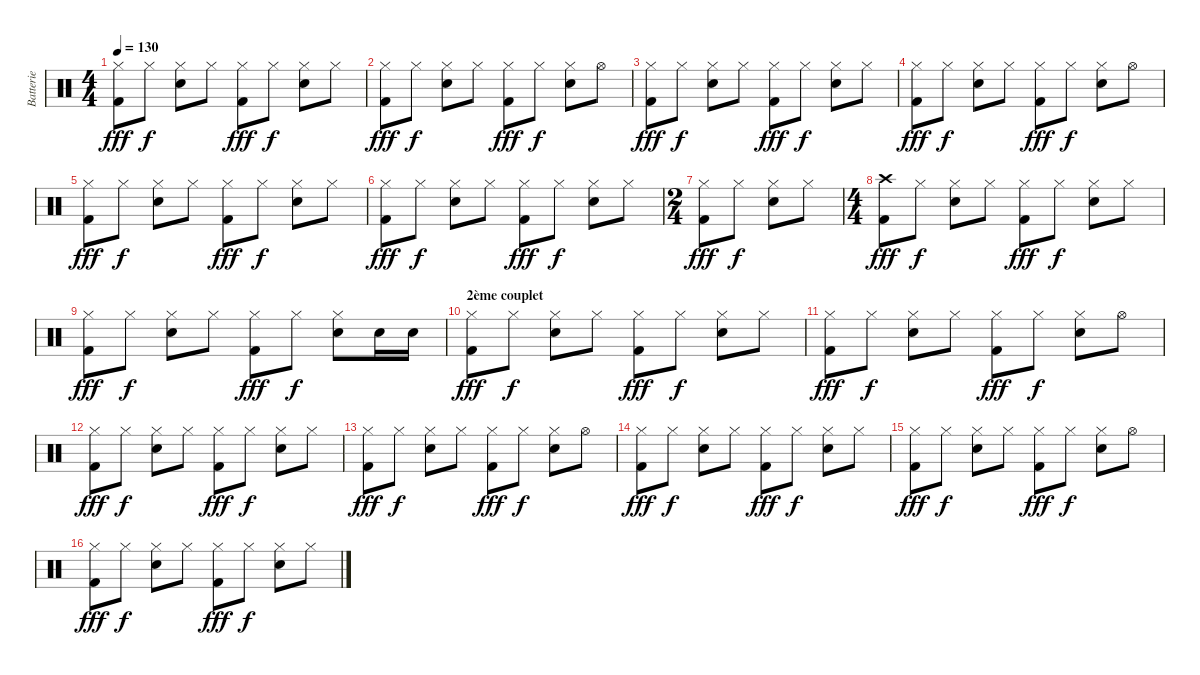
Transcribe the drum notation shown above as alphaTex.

\track ("Batterie" "Batterie") {instrument percussion}
\staff {score}
\articulation defaults
\ts (4 4)
\tempo 130
\clef neutral
\ks c
("Hi-Hat (closed)" "Kick (hit) 2").8{dy fff} "Hi-Hat (closed)".8{dy f} ("Hi-Hat (closed)" "Snare (hit) 2").8 "Hi-Hat (closed)".8 ("Hi-Hat (closed)" "Kick (hit) 2").8{dy fff} "Hi-Hat (closed)".8{dy f} ("Hi-Hat (closed)" "Snare (hit) 2").8 "Hi-Hat (closed)".8 |
("Hi-Hat (closed)" "Kick (hit) 2").8{dy fff} "Hi-Hat (closed)".8{dy f} ("Hi-Hat (closed)" "Snare (hit) 2").8 "Hi-Hat (closed)".8 ("Hi-Hat (closed)" "Kick (hit) 2").8{dy fff} "Hi-Hat (closed)".8{dy f} ("Hi-Hat (closed)" "Snare (hit) 2").8 "Hi-Hat (open)".8 |
("Hi-Hat (closed)" "Kick (hit) 2").8{dy fff} "Hi-Hat (closed)".8{dy f} ("Hi-Hat (closed)" "Snare (hit) 2").8 "Hi-Hat (closed)".8 ("Hi-Hat (closed)" "Kick (hit) 2").8{dy fff} "Hi-Hat (closed)".8{dy f} ("Hi-Hat (closed)" "Snare (hit) 2").8 "Hi-Hat (closed)".8 |
("Hi-Hat (closed)" "Kick (hit) 2").8{dy fff} "Hi-Hat (closed)".8{dy f} ("Hi-Hat (closed)" "Snare (hit) 2").8 "Hi-Hat (closed)".8 ("Hi-Hat (closed)" "Kick (hit) 2").8{dy fff} "Hi-Hat (closed)".8{dy f} ("Hi-Hat (closed)" "Snare (hit) 2").8 "Hi-Hat (open)".8 |
("Hi-Hat (closed)" "Kick (hit) 2").8{dy fff} "Hi-Hat (closed)".8{dy f} ("Hi-Hat (closed)" "Snare (hit) 2").8 "Hi-Hat (closed)".8 ("Hi-Hat (closed)" "Kick (hit) 2").8{dy fff} "Hi-Hat (closed)".8{dy f} ("Hi-Hat (closed)" "Snare (hit) 2").8 "Hi-Hat (closed)".8 |
("Hi-Hat (closed)" "Kick (hit) 2").8{dy fff} "Hi-Hat (closed)".8{dy f} ("Hi-Hat (closed)" "Snare (hit) 2").8 "Hi-Hat (closed)".8 ("Hi-Hat (closed)" "Kick (hit) 2").8{dy fff} "Hi-Hat (closed)".8{dy f} ("Hi-Hat (closed)" "Snare (hit) 2").8 "Hi-Hat (closed)".8 |
\ts (2 4)
("Hi-Hat (closed)" "Kick (hit) 2").8{dy fff} "Hi-Hat (closed)".8{dy f} ("Hi-Hat (closed)" "Snare (hit) 2").8 "Hi-Hat (closed)".8 |
\ts (4 4)
("Crash high (hit)" "Kick (hit) 2").8{dy fff} "Hi-Hat (closed)".8{dy f} ("Hi-Hat (closed)" "Snare (hit) 2").8 "Hi-Hat (closed)".8 ("Hi-Hat (closed)" "Kick (hit) 2").8{dy fff} "Hi-Hat (closed)".8{dy f} ("Hi-Hat (closed)" "Snare (hit) 2").8 "Hi-Hat (closed)".8 |
("Hi-Hat (closed)" "Kick (hit) 2").8{dy fff} "Hi-Hat (closed)".8{dy f} ("Hi-Hat (closed)" "Snare (hit) 2").8 "Hi-Hat (closed)".8 ("Hi-Hat (closed)" "Kick (hit) 2").8{dy fff} "Hi-Hat (closed)".8{dy f} ("Hi-Hat (closed)" "Snare (hit) 2").8 "Snare (hit) 2".16 "Snare (hit) 2".16 |
\section ("" "2ème couplet")
("Hi-Hat (closed)" "Kick (hit) 2").8{dy fff} "Hi-Hat (closed)".8{dy f} ("Hi-Hat (closed)" "Snare (hit) 2").8 "Hi-Hat (closed)".8 ("Hi-Hat (closed)" "Kick (hit) 2").8{dy fff} "Hi-Hat (closed)".8{dy f} ("Hi-Hat (closed)" "Snare (hit) 2").8 "Hi-Hat (closed)".8 |
("Hi-Hat (closed)" "Kick (hit) 2").8{dy fff} "Hi-Hat (closed)".8{dy f} ("Hi-Hat (closed)" "Snare (hit) 2").8 "Hi-Hat (closed)".8 ("Hi-Hat (closed)" "Kick (hit) 2").8{dy fff} "Hi-Hat (closed)".8{dy f} ("Hi-Hat (closed)" "Snare (hit) 2").8 "Hi-Hat (open)".8 |
("Hi-Hat (closed)" "Kick (hit) 2").8{dy fff} "Hi-Hat (closed)".8{dy f} ("Hi-Hat (closed)" "Snare (hit) 2").8 "Hi-Hat (closed)".8 ("Hi-Hat (closed)" "Kick (hit) 2").8{dy fff} "Hi-Hat (closed)".8{dy f} ("Hi-Hat (closed)" "Snare (hit) 2").8 "Hi-Hat (closed)".8 |
("Hi-Hat (closed)" "Kick (hit) 2").8{dy fff} "Hi-Hat (closed)".8{dy f} ("Hi-Hat (closed)" "Snare (hit) 2").8 "Hi-Hat (closed)".8 ("Hi-Hat (closed)" "Kick (hit) 2").8{dy fff} "Hi-Hat (closed)".8{dy f} ("Hi-Hat (closed)" "Snare (hit) 2").8 "Hi-Hat (open)".8 |
("Hi-Hat (closed)" "Kick (hit) 2").8{dy fff} "Hi-Hat (closed)".8{dy f} ("Hi-Hat (closed)" "Snare (hit) 2").8 "Hi-Hat (closed)".8 ("Hi-Hat (closed)" "Kick (hit) 2").8{dy fff} "Hi-Hat (closed)".8{dy f} ("Hi-Hat (closed)" "Snare (hit) 2").8 "Hi-Hat (closed)".8 |
("Hi-Hat (closed)" "Kick (hit) 2").8{dy fff} "Hi-Hat (closed)".8{dy f} ("Hi-Hat (closed)" "Snare (hit) 2").8 "Hi-Hat (closed)".8 ("Hi-Hat (closed)" "Kick (hit) 2").8{dy fff} "Hi-Hat (closed)".8{dy f} ("Hi-Hat (closed)" "Snare (hit) 2").8 "Hi-Hat (open)".8 |
("Hi-Hat (closed)" "Kick (hit) 2").8{dy fff} "Hi-Hat (closed)".8{dy f} ("Hi-Hat (closed)" "Snare (hit) 2").8 "Hi-Hat (closed)".8 ("Hi-Hat (closed)" "Kick (hit) 2").8{dy fff} "Hi-Hat (closed)".8{dy f} ("Hi-Hat (closed)" "Snare (hit) 2").8 "Hi-Hat (closed)".8
